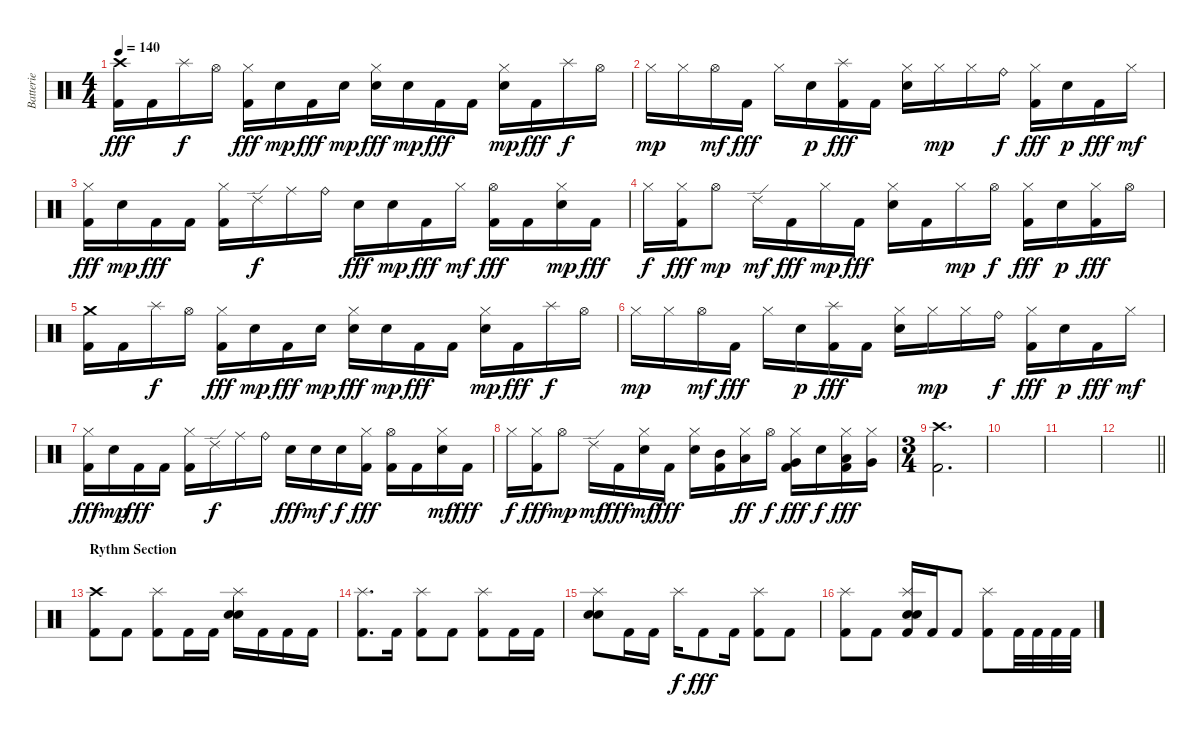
\track ("Batterie" "Batterie") {instrument percussion}
\staff {score}
\articulation defaults
\ts (4 4)
\tempo 140
\clef neutral
\ks c
("Crash high (hit)" "Kick (hit) 2").16{dy fff volume 10} "Kick (hit) 2".16 "Splash (hit)".16{dy f} "Hi-Hat (open)".16 ("Hi-Hat (closed)" "Kick (hit) 2").16{dy fff} "Electric Snare (hit)".16{dy mp} "Kick (hit) 2".16{dy fff} "Electric Snare (hit)".16{dy mp} ("Hi-Hat (closed)" "Electric Snare (hit)").16{dy fff} "Electric Snare (hit)".16{dy mp} "Kick (hit) 2".16{dy fff} "Kick (hit) 2".16 ("Hi-Hat (closed)" "Electric Snare (hit)").16{dy mp} "Kick (hit) 2".16{dy fff} "Splash (hit)".16{dy f} "Hi-Hat (open)".16 |
"Hi-Hat (closed)".16{dy mp} "Hi-Hat (closed)".16 "Hi-Hat (open)".16{dy mf} "Kick (hit) 2".16{dy fff} "Hi-Hat (closed)".16 "Electric Snare (hit)".16{dy p} ("Splash (hit)" "Kick (hit) 2").16{dy fff} "Kick (hit) 2".16 ("Hi-Hat (closed)" "Electric Snare (hit)").16 "Hi-Hat (closed)".16{dy mp} "Hi-Hat (closed)".16 "Ride (bell)".16{dy f} ("Hi-Hat (closed)" "Kick (hit) 2").16{dy fff} "Electric Snare (hit)".16{dy p} "Kick (hit) 2".16{dy fff} "Hi-Hat (closed)".16{dy mf} |
("Hi-Hat (closed)" "Kick (hit) 2").16{dy fff} "Electric Snare (hit)".16{dy mp} "Kick (hit) 2".16{dy fff} "Kick (hit) 2".16 ("Hi-Hat (closed)" "Kick (hit) 2").16 "Ride (edge) 2".16{dy f} "Ride (middle)".16 "Ride (bell)".16 "Electric Snare (hit)".16{dy fff} "Electric Snare (hit)".16{dy mp} "Kick (hit) 2".16{dy fff} "Hi-Hat (closed)".16{dy mf} ("Hi-Hat (open)" "Kick (hit) 2").16{dy fff} "Kick (hit) 2".16 ("Hi-Hat (closed)" "Electric Snare (hit)").16{dy mp} "Kick (hit) 2".16{dy fff} |
"Hi-Hat (closed)".16{dy f} ("Hi-Hat (closed)" "Kick (hit) 2").16{dy fff} "Hi-Hat (open)".8{dy mp} "Ride (edge) 2".16{dy mf} "Kick (hit) 2".16{dy fff} "Hi-Hat (closed)".16{dy mp} "Kick (hit) 2".16{dy fff} ("Hi-Hat (closed)" "Electric Snare (hit)").16 "Kick (hit) 2".16 "Hi-Hat (closed)".16{dy mp} "Hi-Hat (open)".16{dy f} ("Hi-Hat (closed)" "Kick (hit) 2").16{dy fff} "Electric Snare (hit)".16{dy p} ("Hi-Hat (closed)" "Kick (hit) 2").16{dy fff} "Hi-Hat (open)".16 |
("Crash medium (hit)" "Kick (hit) 2").16 "Kick (hit) 2".16 "Splash (hit)".16{dy f} "Hi-Hat (open)".16 ("Hi-Hat (closed)" "Kick (hit) 2").16{dy fff} "Electric Snare (hit)".16{dy mp} "Kick (hit) 2".16{dy fff} "Electric Snare (hit)".16{dy mp} ("Hi-Hat (closed)" "Electric Snare (hit)").16{dy fff} "Electric Snare (hit)".16{dy mp} "Kick (hit) 2".16{dy fff} "Kick (hit) 2".16 ("Hi-Hat (closed)" "Electric Snare (hit)").16{dy mp} "Kick (hit) 2".16{dy fff} "Splash (hit)".16{dy f} "Hi-Hat (open)".16 |
"Hi-Hat (closed)".16{dy mp} "Hi-Hat (closed)".16 "Hi-Hat (open)".16{dy mf} "Kick (hit) 2".16{dy fff} "Hi-Hat (closed)".16 "Electric Snare (hit)".16{dy p} ("Splash (hit)" "Kick (hit) 2").16{dy fff} "Kick (hit) 2".16 ("Hi-Hat (closed)" "Electric Snare (hit)").16 "Hi-Hat (closed)".16{dy mp} "Hi-Hat (closed)".16 "Ride (bell)".16{dy f} ("Hi-Hat (closed)" "Kick (hit) 2").16{dy fff} "Electric Snare (hit)".16{dy p} "Kick (hit) 2".16{dy fff} "Hi-Hat (closed)".16{dy mf} |
("Hi-Hat (closed)" "Kick (hit) 2").16{dy fff} "Electric Snare (hit)".16{dy mp} "Kick (hit) 2".16{dy fff} "Kick (hit) 2".16 ("Hi-Hat (closed)" "Kick (hit) 2").16 "Ride (edge) 2".16{dy f} "Ride (middle)".16 "Ride (bell)".16 "Electric Snare (hit)".16{dy fff} "Electric Snare (hit)".16{dy mf} "Electric Snare (hit)".16{dy f} ("Hi-Hat (closed)" "Kick (hit) 2").16{dy fff} ("Hi-Hat (open)" "Kick (hit) 2").16 "Kick (hit) 2".16 ("Hi-Hat (closed)" "Electric Snare (hit)").16{dy mf} "Kick (hit) 2".16{dy fff} |
"Hi-Hat (closed)".16{dy f} ("Hi-Hat (closed)" "Kick (hit) 2").16{dy fff} "Hi-Hat (open)".8{dy mp} "Ride (edge) 2".16{dy mf} "Kick (hit) 2".16{dy fff} ("Hi-Hat (closed)" "Electric Snare (hit)").16{dy mf} "Kick (hit) 2".16{dy fff} ("Hi-Hat (closed)" "Electric Snare (hit)").16 ("Mid Tom (hit)" "Kick (hit) 2").16 ("Hi-Hat (closed)" "Low Tom (hit)").16{dy ff} "Hi-Hat (open)".16{dy f} ("Hi-Hat (closed)" "Very Low Tom (hit)" "Kick (hit) 2").16{dy fff} "Electric Snare (hit)".16{dy f} ("Hi-Hat (closed)" "Low Floor Tom (hit)" "Kick (hit) 2").16{dy fff} ("Hi-Hat (closed)" "Very Low Tom (hit)").16 |
\ts (3 4)
("Crash high (hit)" "Kick (hit) 2").2{d volume 13} |
|
|
\barLineRight lightlight
|
\section ("" "Rythm Section")
("Crash high (hit)" "Kick (hit) 2").8 "Kick (hit) 2".8 ("Splash (hit)" "Kick (hit) 2").8 "Kick (hit) 2".16 "Kick (hit) 2".16 ("Splash (hit)" "Electric Snare (hit)" "Electric Snare (hit)").16 "Kick (hit) 2".16 "Kick (hit) 2".16 "Kick (hit) 2".16 |
("Splash (hit)" "Kick (hit) 2").8{d} "Kick (hit) 2".16 ("Splash (hit)" "Kick (hit) 2").8 "Kick (hit) 2".8 ("Splash (hit)" "Kick (hit) 2").8 "Kick (hit) 2".16 "Kick (hit) 2".16 |
("Splash (hit)" "Electric Snare (hit)" "Electric Snare (hit)").8 "Kick (hit) 2".16 "Kick (hit) 2".16 "Splash (hit)".16{dy f} "Kick (hit) 2".8{dy fff} "Kick (hit) 2".16 ("Splash (hit)" "Kick (hit) 2").8 "Kick (hit) 2".8 |
("Splash (hit)" "Kick (hit) 2").8 "Kick (hit) 2".8 ("Splash (hit)" "Electric Snare (hit)" "Electric Snare (hit)" "Kick (hit) 2").16 "Kick (hit) 2".16 "Kick (hit) 2".8 ("Splash (hit)" "Kick (hit) 2").8 "Kick (hit) 2".32 "Kick (hit) 2".32 "Kick (hit) 2".32 "Kick (hit) 2".32
